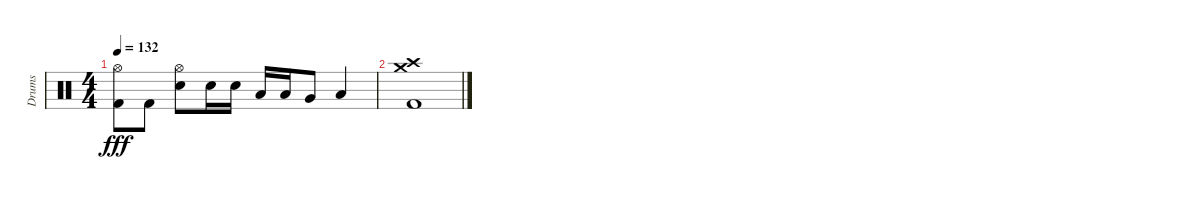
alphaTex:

\track ("Drums" "Drums") {instrument percussion}
\staff {score}
\articulation defaults
\ts (4 4)
\tempo 132
\clef neutral
\ks c
("Hi-Hat (open)" "Kick (hit) 2").8{dy fff} "Kick (hit) 2".8 ("Hi-Hat (open)" "Electric Snare (hit)").8 "Electric Snare (hit)".16 "Electric Snare (hit)".16 "Low Tom (hit)".16 "Low Tom (hit)".16 "Very Low Tom (hit)".8 "Low Floor Tom (hit)".4 |
("Crash high (hit)" "Crash medium (hit)" "Kick (hit) 2").1
